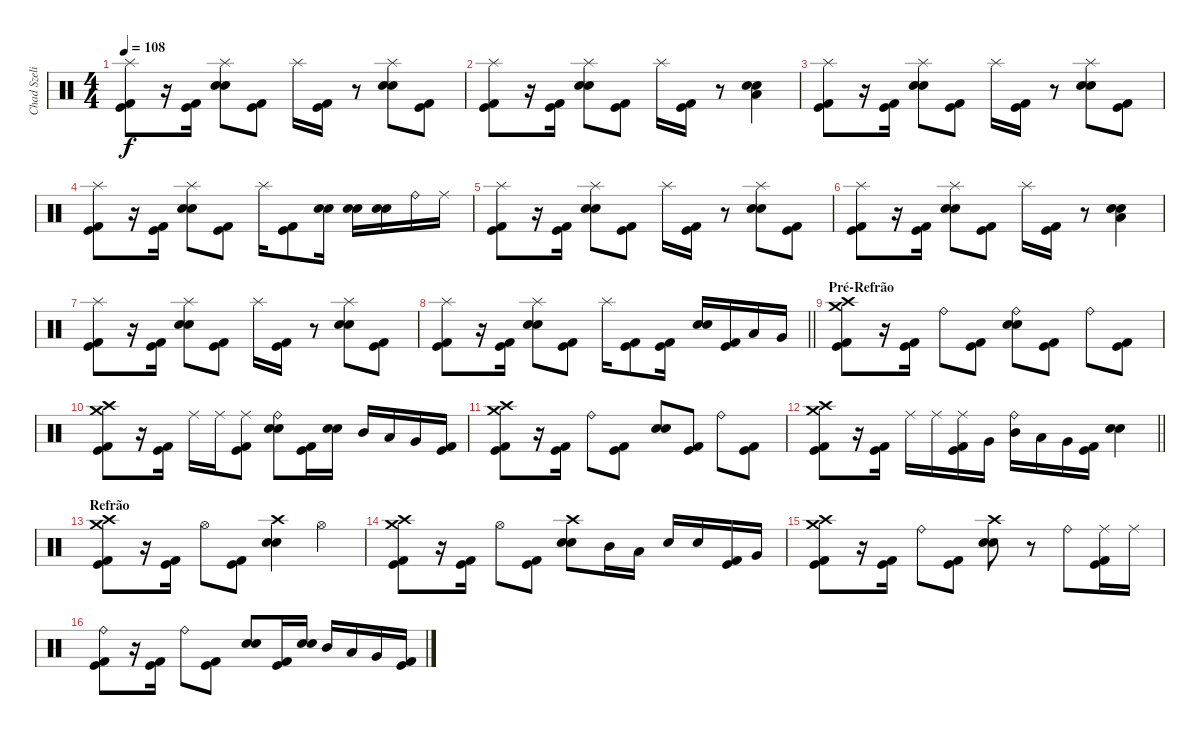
\track ("Chad Szeliga" "Chad Szeli") {instrument percussion}
\staff {score}
\articulation defaults
\ts (4 4)
\tempo 108
\clef neutral
\ks c
("Splash (hit)" "Kick (hit) 2" "Kick (hit)").8{dy f} r.16 ("Kick (hit) 2" "Kick (hit)").16{beam Down} ("Splash (hit)" "Snare (hit) 2" "Snare (hit) 2").8 ("Kick (hit) 2" "Kick (hit)").8 "Splash (hit)".16 ("Kick (hit) 2" "Kick (hit)").16 r.8 ("Splash (hit)" "Snare (hit) 2" "Snare (hit) 2").8 ("Kick (hit) 2" "Kick (hit)").8 |
("Splash (hit)" "Kick (hit) 2" "Kick (hit)").8 r.16 ("Kick (hit) 2" "Kick (hit)").16{beam Down} ("Splash (hit)" "Snare (hit) 2" "Snare (hit) 2").8 ("Kick (hit) 2" "Kick (hit)").8 "Splash (hit)".16 ("Kick (hit) 2" "Kick (hit)").16 r.8 ("Snare (hit) 2" "Snare (hit) 2" "Low Tom (hit)").4 |
("Splash (hit)" "Kick (hit) 2" "Kick (hit)").8 r.16 ("Kick (hit) 2" "Kick (hit)").16{beam Down} ("Splash (hit)" "Snare (hit) 2" "Snare (hit) 2").8 ("Kick (hit) 2" "Kick (hit)").8 "Splash (hit)".16 ("Kick (hit) 2" "Kick (hit)").16 r.8 ("Splash (hit)" "Snare (hit) 2" "Snare (hit) 2").8 ("Kick (hit) 2" "Kick (hit)").8 |
("Splash (hit)" "Kick (hit) 2" "Kick (hit)").8 r.16 ("Kick (hit) 2" "Kick (hit)").16{beam Down} ("Splash (hit)" "Snare (hit) 2" "Snare (hit) 2").8 ("Kick (hit) 2" "Kick (hit)").8 "Splash (hit)".16 ("Kick (hit) 2" "Kick (hit)").8 ("Snare (hit) 2" "Snare (hit) 2").16 ("Snare (hit) 2" "Snare (hit) 2").16 ("Snare (hit) 2" "Snare (hit) 2").16 "Ride (bell)".16 "Ride (middle)".16 |
("Splash (hit)" "Kick (hit) 2" "Kick (hit)").8 r.16 ("Kick (hit) 2" "Kick (hit)").16{beam Down} ("Splash (hit)" "Snare (hit) 2" "Snare (hit) 2").8 ("Kick (hit) 2" "Kick (hit)").8 "Splash (hit)".16 ("Kick (hit) 2" "Kick (hit)").16 r.8 ("Splash (hit)" "Snare (hit) 2" "Snare (hit) 2").8 ("Kick (hit) 2" "Kick (hit)").8 |
("Splash (hit)" "Kick (hit) 2" "Kick (hit)").8 r.16 ("Kick (hit) 2" "Kick (hit)").16{beam Down} ("Splash (hit)" "Snare (hit) 2" "Snare (hit) 2").8 ("Kick (hit) 2" "Kick (hit)").8 "Splash (hit)".16 ("Kick (hit) 2" "Kick (hit)").16 r.8 ("Snare (hit) 2" "Snare (hit) 2" "Low Tom (hit)").4 |
("Splash (hit)" "Kick (hit) 2" "Kick (hit)").8 r.16 ("Kick (hit) 2" "Kick (hit)").16{beam Down} ("Splash (hit)" "Snare (hit) 2" "Snare (hit) 2").8 ("Kick (hit) 2" "Kick (hit)").8 "Splash (hit)".16 ("Kick (hit) 2" "Kick (hit)").16 r.8 ("Splash (hit)" "Snare (hit) 2" "Snare (hit) 2").8 ("Kick (hit) 2" "Kick (hit)").8 |
\barLineRight lightlight
("Splash (hit)" "Kick (hit) 2" "Kick (hit)").8 r.16 ("Kick (hit) 2" "Kick (hit)").16{beam Down} ("Splash (hit)" "Snare (hit) 2" "Snare (hit) 2").8 ("Kick (hit) 2" "Kick (hit)").8 "Splash (hit)".16 ("Kick (hit) 2" "Kick (hit)").8 ("Kick (hit) 2" "Kick (hit)").16 ("Snare (hit) 2" "Snare (hit) 2").16 ("Kick (hit) 2" "Kick (hit)").16 "Low Tom (hit)".16 "Very Low Tom (hit)".16 |
\section ("" "Pré-Refrão")
("Crash high (hit)" "Kick (hit) 2" "Kick (hit)" "Crash medium (hit)").8 r.16 ("Kick (hit) 2" "Kick (hit)").16{beam Down} "Ride (bell)".8 ("Kick (hit) 2" "Kick (hit)").8 ("Ride (bell)" "Snare (hit) 2" "Snare (hit) 2").8 ("Kick (hit) 2" "Kick (hit)").8 "Ride (bell)".8 ("Kick (hit) 2" "Kick (hit)").8 |
("Crash high (hit)" "Kick (hit) 2" "Kick (hit)" "Crash medium (hit)").8 r.16 ("Kick (hit) 2" "Kick (hit)").16{beam Down} "Ride (middle)".16 "Ride (middle)".16 ("Ride (middle)" "Kick (hit)" "Kick (hit) 2").8 ("Ride (bell)" "Snare (hit) 2" "Snare (hit) 2").8 ("Kick (hit) 2" "Kick (hit)").16 ("Snare (hit) 2" "Snare (hit) 2").16 "Mid Tom (hit)".16 "Low Tom (hit)".16 "Very Low Tom (hit)".16 ("Kick (hit) 2" "Kick (hit)").16 |
("Crash high (hit)" "Kick (hit) 2" "Kick (hit)" "Crash medium (hit)").8 r.16 ("Kick (hit) 2" "Kick (hit)").16{beam Down} "Ride (bell)".8 ("Kick (hit) 2" "Kick (hit)").8 ("Snare (hit) 2" "Snare (hit) 2").8 ("Kick (hit) 2" "Kick (hit)").8 "Ride (bell)".8 ("Kick (hit) 2" "Kick (hit)").8 |
\barLineRight lightlight
("Crash high (hit)" "Kick (hit) 2" "Kick (hit)" "Crash medium (hit)").8 r.16 ("Kick (hit) 2" "Kick (hit)").16{beam Down} "Ride (middle)".16 "Ride (middle)".16 ("Ride (middle)" "Kick (hit)" "Kick (hit) 2").16 "Very Low Tom (hit)".16 ("Ride (bell)" "Mid Tom (hit)").16 "Low Tom (hit)".16 "Very Low Tom (hit)".16 ("Kick (hit) 2" "Kick (hit)").16 ("Snare (hit) 2" "Snare (hit) 2").4 |
\section ("" "Refrão")
("Crash high (hit)" "Kick (hit) 2" "Kick (hit)" "Crash medium (hit)").8 r.16 ("Kick (hit) 2" "Kick (hit)").16{beam Down} "Hi-Hat (open)".8 ("Kick (hit) 2" "Kick (hit)").8 ("Crash high (hit)" "Snare (hit) 2" "Snare (hit) 2").4 "Hi-Hat (open)".4 |
("Crash high (hit)" "Kick (hit) 2" "Kick (hit)" "Crash medium (hit)").8 r.16 ("Kick (hit) 2" "Kick (hit)").16{beam Down} "Hi-Hat (open)".8 ("Kick (hit) 2" "Kick (hit)").8 ("Crash high (hit)" "Snare (hit) 2" "Snare (hit) 2").8 "Mid Tom (hit)".16 "Low Tom (hit)".16 "Snare (hit) 2".16 "Snare (hit) 2".16 ("Kick (hit) 2" "Kick (hit)").16 "Very Low Tom (hit)".16 |
("Crash high (hit)" "Kick (hit) 2" "Kick (hit)" "Crash medium (hit)").8 r.16 ("Kick (hit) 2" "Kick (hit)").16{beam Down} "Ride (bell)".8 ("Kick (hit) 2" "Kick (hit)").8 ("Crash high (hit)" "Snare (hit) 2" "Snare (hit) 2").8 r.8 "Ride (bell)".8 ("Ride (middle)" "Kick (hit) 2" "Kick (hit)").16 "Ride (middle)".16 |
("Ride (bell)" "Kick (hit) 2" "Kick (hit)").8 r.16 ("Kick (hit) 2" "Kick (hit)").16{beam Down} "Ride (bell)".8 ("Kick (hit) 2" "Kick (hit)").8 ("Snare (hit) 2" "Snare (hit) 2").8 ("Kick (hit) 2" "Kick (hit)").16 ("Snare (hit) 2" "Snare (hit) 2").16 "Mid Tom (hit)".16 "Low Tom (hit)".16 "Very Low Tom (hit)".16 ("Kick (hit) 2" "Kick (hit)").16
